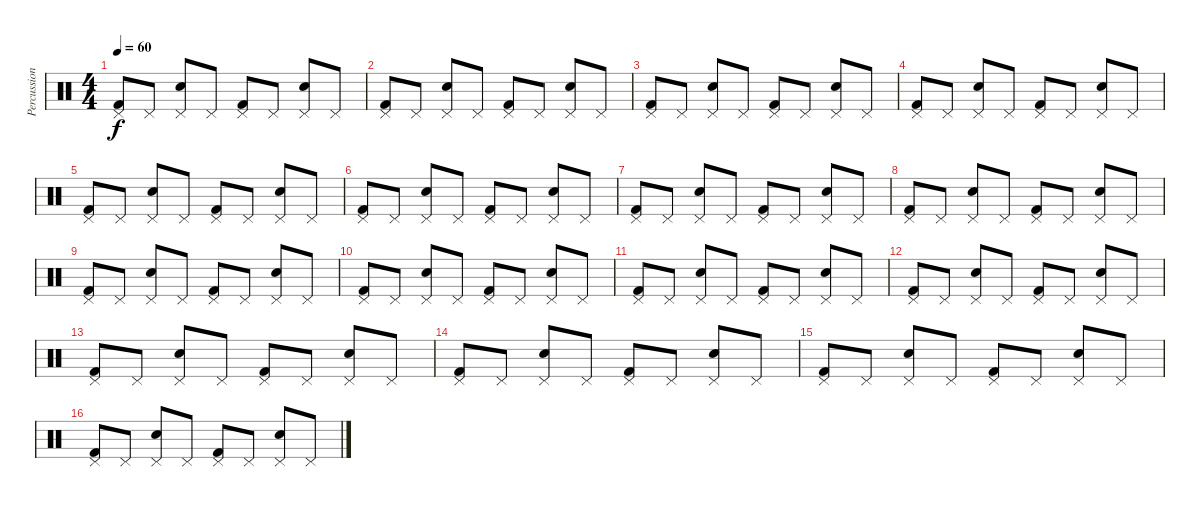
\track ("Percussion" "Percussion") {instrument percussion}
\staff {score}
\articulation defaults
\ts (4 4)
\tempo 60
\clef neutral
\ks c
("Pedal Hi-Hat (hit)" "Kick (hit) 2").8{dy f} "Pedal Hi-Hat (hit)".8 ("Pedal Hi-Hat (hit)" "Snare (hit) 2").8 "Pedal Hi-Hat (hit)".8 ("Pedal Hi-Hat (hit)" "Kick (hit) 2").8 "Pedal Hi-Hat (hit)".8 ("Pedal Hi-Hat (hit)" "Snare (hit) 2").8 "Pedal Hi-Hat (hit)".8 |
("Pedal Hi-Hat (hit)" "Kick (hit) 2").8 "Pedal Hi-Hat (hit)".8 ("Pedal Hi-Hat (hit)" "Snare (hit) 2").8 "Pedal Hi-Hat (hit)".8 ("Pedal Hi-Hat (hit)" "Kick (hit) 2").8 "Pedal Hi-Hat (hit)".8 ("Pedal Hi-Hat (hit)" "Snare (hit) 2").8 "Pedal Hi-Hat (hit)".8 |
("Pedal Hi-Hat (hit)" "Kick (hit) 2").8 "Pedal Hi-Hat (hit)".8 ("Pedal Hi-Hat (hit)" "Snare (hit) 2").8 "Pedal Hi-Hat (hit)".8 ("Pedal Hi-Hat (hit)" "Kick (hit) 2").8 "Pedal Hi-Hat (hit)".8 ("Pedal Hi-Hat (hit)" "Snare (hit) 2").8 "Pedal Hi-Hat (hit)".8 |
("Pedal Hi-Hat (hit)" "Kick (hit) 2").8 "Pedal Hi-Hat (hit)".8 ("Pedal Hi-Hat (hit)" "Snare (hit) 2").8 "Pedal Hi-Hat (hit)".8 ("Pedal Hi-Hat (hit)" "Kick (hit) 2").8 "Pedal Hi-Hat (hit)".8 ("Pedal Hi-Hat (hit)" "Snare (hit) 2").8 "Pedal Hi-Hat (hit)".8 |
("Pedal Hi-Hat (hit)" "Kick (hit) 2").8 "Pedal Hi-Hat (hit)".8 ("Pedal Hi-Hat (hit)" "Snare (hit) 2").8 "Pedal Hi-Hat (hit)".8 ("Pedal Hi-Hat (hit)" "Kick (hit) 2").8 "Pedal Hi-Hat (hit)".8 ("Pedal Hi-Hat (hit)" "Snare (hit) 2").8 "Pedal Hi-Hat (hit)".8 |
("Pedal Hi-Hat (hit)" "Kick (hit) 2").8 "Pedal Hi-Hat (hit)".8 ("Pedal Hi-Hat (hit)" "Snare (hit) 2").8 "Pedal Hi-Hat (hit)".8 ("Pedal Hi-Hat (hit)" "Kick (hit) 2").8 "Pedal Hi-Hat (hit)".8 ("Pedal Hi-Hat (hit)" "Snare (hit) 2").8 "Pedal Hi-Hat (hit)".8 |
("Pedal Hi-Hat (hit)" "Kick (hit) 2").8 "Pedal Hi-Hat (hit)".8 ("Pedal Hi-Hat (hit)" "Snare (hit) 2").8 "Pedal Hi-Hat (hit)".8 ("Pedal Hi-Hat (hit)" "Kick (hit) 2").8 "Pedal Hi-Hat (hit)".8 ("Pedal Hi-Hat (hit)" "Snare (hit) 2").8 "Pedal Hi-Hat (hit)".8 |
("Pedal Hi-Hat (hit)" "Kick (hit) 2").8 "Pedal Hi-Hat (hit)".8 ("Pedal Hi-Hat (hit)" "Snare (hit) 2").8 "Pedal Hi-Hat (hit)".8 ("Pedal Hi-Hat (hit)" "Kick (hit) 2").8 "Pedal Hi-Hat (hit)".8 ("Pedal Hi-Hat (hit)" "Snare (hit) 2").8 "Pedal Hi-Hat (hit)".8 |
("Pedal Hi-Hat (hit)" "Kick (hit) 2").8 "Pedal Hi-Hat (hit)".8 ("Pedal Hi-Hat (hit)" "Snare (hit) 2").8 "Pedal Hi-Hat (hit)".8 ("Pedal Hi-Hat (hit)" "Kick (hit) 2").8 "Pedal Hi-Hat (hit)".8 ("Pedal Hi-Hat (hit)" "Snare (hit) 2").8 "Pedal Hi-Hat (hit)".8 |
("Pedal Hi-Hat (hit)" "Kick (hit) 2").8 "Pedal Hi-Hat (hit)".8 ("Pedal Hi-Hat (hit)" "Snare (hit) 2").8 "Pedal Hi-Hat (hit)".8 ("Pedal Hi-Hat (hit)" "Kick (hit) 2").8 "Pedal Hi-Hat (hit)".8 ("Pedal Hi-Hat (hit)" "Snare (hit) 2").8 "Pedal Hi-Hat (hit)".8 |
("Pedal Hi-Hat (hit)" "Kick (hit) 2").8 "Pedal Hi-Hat (hit)".8 ("Pedal Hi-Hat (hit)" "Snare (hit) 2").8 "Pedal Hi-Hat (hit)".8 ("Pedal Hi-Hat (hit)" "Kick (hit) 2").8 "Pedal Hi-Hat (hit)".8 ("Pedal Hi-Hat (hit)" "Snare (hit) 2").8 "Pedal Hi-Hat (hit)".8 |
("Pedal Hi-Hat (hit)" "Kick (hit) 2").8 "Pedal Hi-Hat (hit)".8 ("Pedal Hi-Hat (hit)" "Snare (hit) 2").8 "Pedal Hi-Hat (hit)".8 ("Pedal Hi-Hat (hit)" "Kick (hit) 2").8 "Pedal Hi-Hat (hit)".8 ("Pedal Hi-Hat (hit)" "Snare (hit) 2").8 "Pedal Hi-Hat (hit)".8 |
("Pedal Hi-Hat (hit)" "Kick (hit) 2").8 "Pedal Hi-Hat (hit)".8 ("Pedal Hi-Hat (hit)" "Snare (hit) 2").8 "Pedal Hi-Hat (hit)".8 ("Pedal Hi-Hat (hit)" "Kick (hit) 2").8 "Pedal Hi-Hat (hit)".8 ("Pedal Hi-Hat (hit)" "Snare (hit) 2").8 "Pedal Hi-Hat (hit)".8 |
("Pedal Hi-Hat (hit)" "Kick (hit) 2").8 "Pedal Hi-Hat (hit)".8 ("Pedal Hi-Hat (hit)" "Snare (hit) 2").8 "Pedal Hi-Hat (hit)".8 ("Pedal Hi-Hat (hit)" "Kick (hit) 2").8 "Pedal Hi-Hat (hit)".8 ("Pedal Hi-Hat (hit)" "Snare (hit) 2").8 "Pedal Hi-Hat (hit)".8 |
("Pedal Hi-Hat (hit)" "Kick (hit) 2").8 "Pedal Hi-Hat (hit)".8 ("Pedal Hi-Hat (hit)" "Snare (hit) 2").8 "Pedal Hi-Hat (hit)".8 ("Pedal Hi-Hat (hit)" "Kick (hit) 2").8 "Pedal Hi-Hat (hit)".8 ("Pedal Hi-Hat (hit)" "Snare (hit) 2").8 "Pedal Hi-Hat (hit)".8 |
("Pedal Hi-Hat (hit)" "Kick (hit) 2").8 "Pedal Hi-Hat (hit)".8 ("Pedal Hi-Hat (hit)" "Snare (hit) 2").8 "Pedal Hi-Hat (hit)".8 ("Pedal Hi-Hat (hit)" "Kick (hit) 2").8 "Pedal Hi-Hat (hit)".8 ("Pedal Hi-Hat (hit)" "Snare (hit) 2").8 "Pedal Hi-Hat (hit)".8
